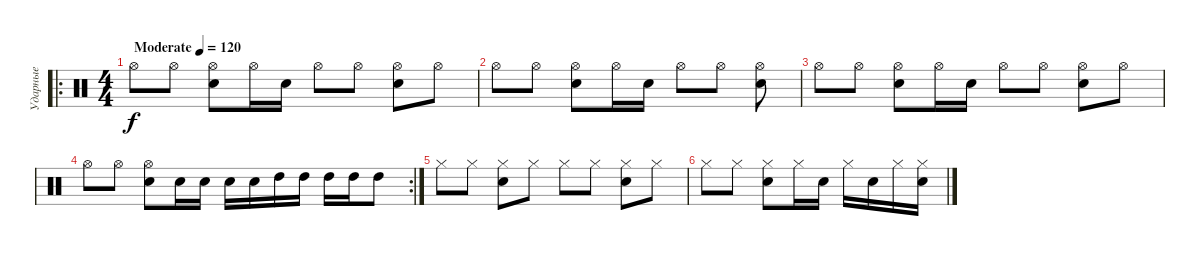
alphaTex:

\track ("Ударные" "Ударные") {instrument percussion}
\staff {score}
\articulation defaults
\ro
\ts (4 4)
\tempo (120 "Moderate")
\clef neutral
\ks c "Hi-Hat (open)".8{dy f} "Hi-Hat (open)".8
("Hi-Hat (open)" "Snare (hit) 2").8 "Hi-Hat (open)".16 "Snare (hit) 2".16 "Hi-Hat (open)".8 "Hi-Hat (open)".8 ("Hi-Hat (open)" "Snare (hit) 2").8 "Hi-Hat (open)".8 |
"Hi-Hat (open)".8 "Hi-Hat (open)".8 ("Hi-Hat (open)" "Snare (hit) 2").8 "Hi-Hat (open)".16 "Snare (hit) 2".16 "Hi-Hat (open)".8 "Hi-Hat (open)".8 ("Hi-Hat (open)" "Snare (hit) 2").8 |
"Hi-Hat (open)".8 "Hi-Hat (open)".8 ("Hi-Hat (open)" "Snare (hit) 2").8 "Hi-Hat (open)".16 "Snare (hit) 2".16 "Hi-Hat (open)".8 "Hi-Hat (open)".8 ("Hi-Hat (open)" "Snare (hit) 2").8 "Hi-Hat (open)".8 |
\rc 2 "Hi-Hat (open)".8 "Hi-Hat (open)".8
("Hi-Hat (open)" "Snare (hit) 2").8 "Snare (hit) 2".16 "Snare (hit) 2".16 "Snare (hit) 2".16 "Snare (hit) 2".16 "High Tom (hit)".16 "High Tom (hit)".16 "High Tom (hit)".16 "High Tom (hit)".16 "High Tom (hit)".8 |
"Hi-Hat (closed)".8 "Hi-Hat (closed)".8 ("Hi-Hat (closed)" "Snare (hit) 2").8 "Hi-Hat (closed)".8 "Hi-Hat (closed)".8 "Hi-Hat (closed)".8 ("Hi-Hat (closed)" "Snare (hit) 2").8 "Hi-Hat (closed)".8 |
"Hi-Hat (closed)".8 "Hi-Hat (closed)".8 ("Hi-Hat (closed)" "Snare (hit) 2").8 "Hi-Hat (closed)".16 "Snare (hit) 2".16 "Hi-Hat (closed)".16 "Snare (hit) 2".16 "Hi-Hat (closed)".16 ("Hi-Hat (closed)" "Snare (hit) 2").16
